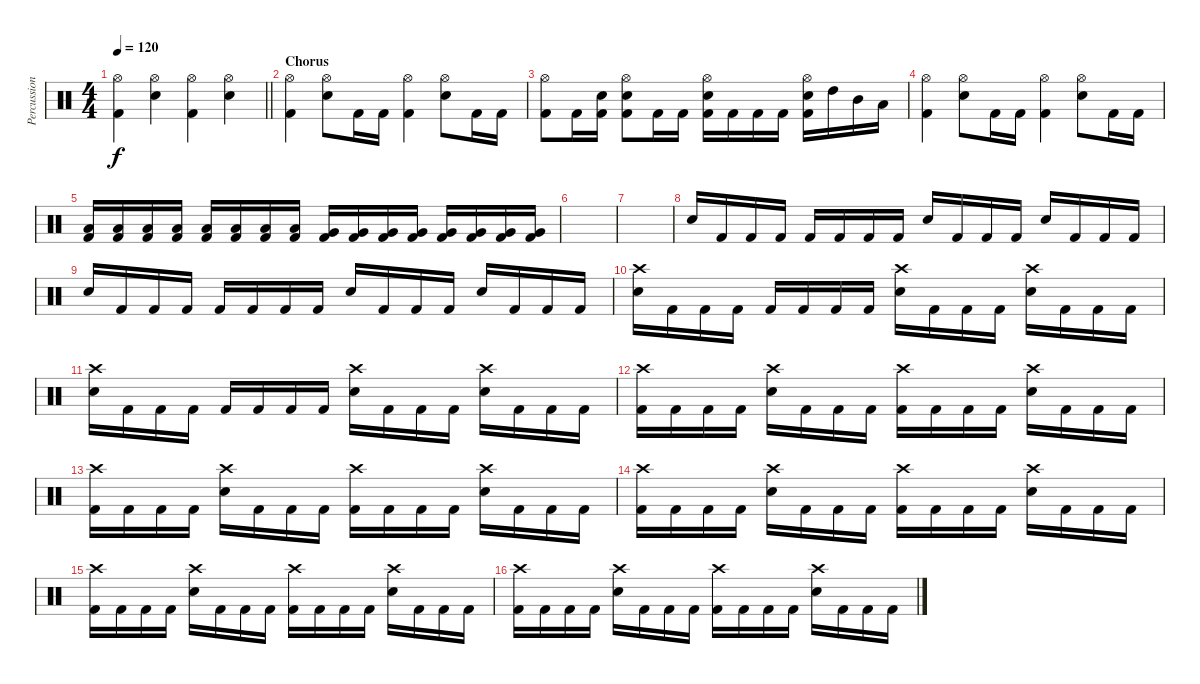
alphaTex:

\track ("Percussion" "Percussion") {instrument percussion}
\staff {score}
\articulation defaults
\ts (4 4)
\tempo 120
\clef neutral
\barLineRight lightlight
\ks c
("Hi-Hat (open)" "Kick (hit) 2").4{dy f} ("Hi-Hat (open)" "Electric Snare (hit)").4 ("Hi-Hat (open)" "Kick (hit) 2").4 ("Hi-Hat (open)" "Electric Snare (hit)").4 |
\section ("" "Chorus")
("Hi-Hat (open)" "Kick (hit) 2").4 ("Hi-Hat (open)" "Electric Snare (hit)").8 "Kick (hit) 2".16 "Kick (hit) 2".16 ("Hi-Hat (open)" "Kick (hit) 2").4 ("Hi-Hat (open)" "Electric Snare (hit)").8 "Kick (hit) 2".16 "Kick (hit) 2".16 |
("Hi-Hat (open)" "Kick (hit) 2").8 "Kick (hit) 2".16 ("Kick (hit) 2" "Snare (hit)").16 ("Kick (hit) 2" "Electric Snare (hit)" "Hi-Hat (open)").8 "Kick (hit) 2".16 "Kick (hit) 2".16 ("Kick (hit) 2" "Electric Snare (hit)" "Hi-Hat (open)").16 "Kick (hit) 2".16 "Kick (hit) 2".16 "Kick (hit) 2".16 ("Kick (hit) 2" "Hi-Hat (open)" "Electric Snare (hit)").16 "High Tom (hit)".16 "Mid Tom (hit)".16 "Low Tom (hit)".16 |
("Hi-Hat (open)" "Kick (hit) 2").4 ("Hi-Hat (open)" "Electric Snare (hit)").8 "Kick (hit) 2".16 "Kick (hit) 2".16 ("Hi-Hat (open)" "Kick (hit) 2").4 ("Hi-Hat (open)" "Electric Snare (hit)").8 "Kick (hit) 2".16 "Kick (hit) 2".16 |
("Kick (hit) 2" "Low Tom (hit)").16 ("Kick (hit) 2" "Low Tom (hit)").16 ("Kick (hit) 2" "Low Tom (hit)").16 ("Kick (hit) 2" "Low Tom (hit)").16 ("Kick (hit) 2" "Low Tom (hit)").16 ("Kick (hit) 2" "Low Tom (hit)").16 ("Kick (hit) 2" "Low Tom (hit)").16 ("Kick (hit) 2" "Low Tom (hit)").16 ("Kick (hit) 2" "Very Low Tom (hit)").16 ("Kick (hit) 2" "Very Low Tom (hit)").16 ("Kick (hit) 2" "Very Low Tom (hit)").16 ("Kick (hit) 2" "Very Low Tom (hit)").16 ("Kick (hit) 2" "Very Low Tom (hit)").16 ("Kick (hit) 2" "Very Low Tom (hit)").16 ("Kick (hit) 2" "Very Low Tom (hit)").16 ("Kick (hit) 2" "Very Low Tom (hit)").16 |
|
|
"Electric Snare (hit)".16 "Kick (hit) 2".16 "Kick (hit) 2".16 "Kick (hit) 2".16 "Kick (hit) 2".16 "Kick (hit) 2".16 "Kick (hit) 2".16 "Kick (hit) 2".16 "Electric Snare (hit)".16 "Kick (hit) 2".16 "Kick (hit) 2".16 "Kick (hit) 2".16 "Electric Snare (hit)".16 "Kick (hit) 2".16 "Kick (hit) 2".16 "Kick (hit) 2".16 |
"Electric Snare (hit)".16 "Kick (hit) 2".16 "Kick (hit) 2".16 "Kick (hit) 2".16 "Kick (hit) 2".16 "Kick (hit) 2".16 "Kick (hit) 2".16 "Kick (hit) 2".16 "Electric Snare (hit)".16 "Kick (hit) 2".16 "Kick (hit) 2".16 "Kick (hit) 2".16 "Electric Snare (hit)".16 "Kick (hit) 2".16 "Kick (hit) 2".16 "Kick (hit) 2".16 |
("Electric Snare (hit)" "Crash high (hit)").16 "Kick (hit) 2".16 "Kick (hit) 2".16 "Kick (hit) 2".16 "Kick (hit) 2".16 "Kick (hit) 2".16 "Kick (hit) 2".16 "Kick (hit) 2".16 ("Electric Snare (hit)" "Crash high (hit)").16 "Kick (hit) 2".16 "Kick (hit) 2".16 "Kick (hit) 2".16 ("Electric Snare (hit)" "Crash high (hit)").16 "Kick (hit) 2".16 "Kick (hit) 2".16 "Kick (hit) 2".16 |
("Electric Snare (hit)" "Crash high (hit)").16 "Kick (hit) 2".16 "Kick (hit) 2".16 "Kick (hit) 2".16 "Kick (hit) 2".16 "Kick (hit) 2".16 "Kick (hit) 2".16 "Kick (hit) 2".16 ("Electric Snare (hit)" "Crash high (hit)").16 "Kick (hit) 2".16 "Kick (hit) 2".16 "Kick (hit) 2".16 ("Electric Snare (hit)" "Crash high (hit)").16 "Kick (hit) 2".16 "Kick (hit) 2".16 "Kick (hit) 2".16 |
("Kick (hit) 2" "Crash high (hit)").16 "Kick (hit) 2".16 "Kick (hit) 2".16 "Kick (hit) 2".16 ("Electric Snare (hit)" "Crash high (hit)").16 "Kick (hit) 2".16 "Kick (hit) 2".16 "Kick (hit) 2".16 ("Kick (hit) 2" "Crash high (hit)").16 "Kick (hit) 2".16 "Kick (hit) 2".16 "Kick (hit) 2".16 ("Electric Snare (hit)" "Crash high (hit)").16 "Kick (hit) 2".16 "Kick (hit) 2".16 "Kick (hit) 2".16 |
("Kick (hit) 2" "Crash high (hit)").16 "Kick (hit) 2".16 "Kick (hit) 2".16 "Kick (hit) 2".16 ("Electric Snare (hit)" "Crash high (hit)").16 "Kick (hit) 2".16 "Kick (hit) 2".16 "Kick (hit) 2".16 ("Kick (hit) 2" "Crash high (hit)").16 "Kick (hit) 2".16 "Kick (hit) 2".16 "Kick (hit) 2".16 ("Electric Snare (hit)" "Crash high (hit)").16 "Kick (hit) 2".16 "Kick (hit) 2".16 "Kick (hit) 2".16 |
("Kick (hit) 2" "Crash high (hit)").16 "Kick (hit) 2".16 "Kick (hit) 2".16 "Kick (hit) 2".16 ("Electric Snare (hit)" "Crash high (hit)").16 "Kick (hit) 2".16 "Kick (hit) 2".16 "Kick (hit) 2".16 ("Kick (hit) 2" "Crash high (hit)").16 "Kick (hit) 2".16 "Kick (hit) 2".16 "Kick (hit) 2".16 ("Electric Snare (hit)" "Crash high (hit)").16 "Kick (hit) 2".16 "Kick (hit) 2".16 "Kick (hit) 2".16 |
("Kick (hit) 2" "Crash high (hit)").16 "Kick (hit) 2".16 "Kick (hit) 2".16 "Kick (hit) 2".16 ("Electric Snare (hit)" "Crash high (hit)").16 "Kick (hit) 2".16 "Kick (hit) 2".16 "Kick (hit) 2".16 ("Kick (hit) 2" "Crash high (hit)").16 "Kick (hit) 2".16 "Kick (hit) 2".16 "Kick (hit) 2".16 ("Electric Snare (hit)" "Crash high (hit)").16 "Kick (hit) 2".16 "Kick (hit) 2".16 "Kick (hit) 2".16 |
("Kick (hit) 2" "Crash high (hit)").16 "Kick (hit) 2".16 "Kick (hit) 2".16 "Kick (hit) 2".16 ("Electric Snare (hit)" "Crash high (hit)").16 "Kick (hit) 2".16 "Kick (hit) 2".16 "Kick (hit) 2".16 ("Kick (hit) 2" "Crash high (hit)").16 "Kick (hit) 2".16 "Kick (hit) 2".16 "Kick (hit) 2".16 ("Electric Snare (hit)" "Crash high (hit)").16 "Kick (hit) 2".16 "Kick (hit) 2".16 "Kick (hit) 2".16
